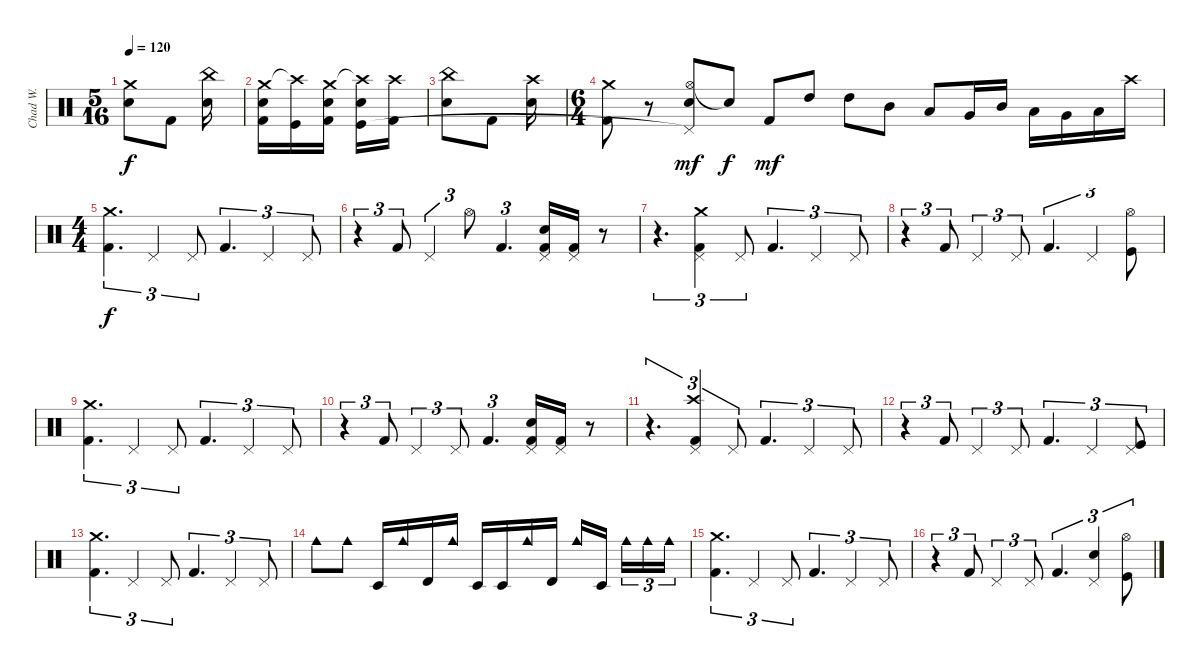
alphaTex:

\track ("Chad W." "Chad W.") {instrument percussion bank 177}
\staff {score}
\articulation defaults
\ts (5 16)
\tempo 120
\clef neutral
\ks c
("Crash medium (hit)" "Electric Snare (hit)").8{dy f} "Kick (hit) 2".8 ("China (hit)" "Electric Snare (hit)").16 |
("Crash medium (hit)" "Electric Snare (hit)" "Kick (hit) 2").16 ("Crash high (hit)"{t} "Kick (hit)").16 ("Crash medium (hit)" "Electric Snare (hit)" "Kick (hit) 2").16 ("Crash high (hit)"{t} "Electric Snare (hit)" "Kick (hit)").16 ("Crash high (hit)" "Kick (hit) 2").16 |
("China (hit)" "Electric Snare (hit)").8 "Kick (hit) 2".8 ("Crash high (hit)" "Electric Snare (hit)").16 |
\ts (6 4)
("Crash medium (hit)" "Kick (hit) 2").8 r.8 ("Hi-Hat (open)" "Electric Snare (hit)" "Pedal Hi-Hat (hit)"{t}).8{dy mf} "Snare (hit)"{t}.8{dy f} "Kick (hit) 2".8{dy mf} "High Tom (hit)".8 "High Tom (hit)".8 "Mid Tom (hit)".8 "Low Tom (hit)".8 "Very Low Tom (hit)".16 "Mid Tom (hit)".16 "Low Tom (hit)".16 "Very Low Tom (hit)".16 "Low Floor Tom (hit)".16 "Crash high (hit)".16 |
\ts (4 4)
("Crash medium (hit)" "Kick (hit) 2").4{d tu (3 2) dy f} "Pedal Hi-Hat (hit)".4{tu (3 2)} "Pedal Hi-Hat (hit)".8{tu (3 2)} "Kick (hit) 2".4{d tu (3 2)} "Pedal Hi-Hat (hit)".4{tu (3 2)} "Pedal Hi-Hat (hit)".8{tu (3 2)} |
r.4{tu (3 2)} "Kick (hit) 2".8{tu (3 2)} "Pedal Hi-Hat (hit)".4{tu (3 2)} "Hi-Hat (open)".8{tu (3 2)} "Kick (hit) 2".4{d tu (3 2)} ("Pedal Hi-Hat (hit)" "Electric Snare (hit)" "Kick (hit) 2").16 ("Pedal Hi-Hat (hit)" "Kick (hit) 2").16 r.8 |
r.4{d tu (3 2)} ("Crash medium (hit)" "Pedal Hi-Hat (hit)" "Kick (hit) 2").4{tu (3 2)} "Pedal Hi-Hat (hit)".8{tu (3 2)} "Kick (hit) 2".4{d tu (3 2)} "Pedal Hi-Hat (hit)".4{tu (3 2)} "Pedal Hi-Hat (hit)".8{tu (3 2)} |
r.4{tu (3 2)} "Kick (hit) 2".8{tu (3 2)} "Pedal Hi-Hat (hit)".4{tu (3 2)} "Pedal Hi-Hat (hit)".8{tu (3 2)} "Kick (hit) 2".4{d tu (3 2)} "Pedal Hi-Hat (hit)".4{tu (3 2)} ("Hi-Hat (open)" "Kick (hit)").8{tu (3 2)} |
("Crash medium (hit)" "Kick (hit) 2").4{d tu (3 2)} "Pedal Hi-Hat (hit)".4{tu (3 2)} "Pedal Hi-Hat (hit)".8{tu (3 2)} "Kick (hit) 2".4{d tu (3 2)} "Pedal Hi-Hat (hit)".4{tu (3 2)} "Pedal Hi-Hat (hit)".8{tu (3 2)} |
r.4{tu (3 2)} "Kick (hit) 2".8{tu (3 2)} "Pedal Hi-Hat (hit)".4{tu (3 2)} "Pedal Hi-Hat (hit)".8{tu (3 2)} "Kick (hit) 2".4{d tu (3 2)} ("Pedal Hi-Hat (hit)" "Electric Snare (hit)" "Kick (hit) 2").16 ("Pedal Hi-Hat (hit)" "Kick (hit) 2").16 r.8 |
r.4{d tu (3 2)} ("Crash high (hit)" "Pedal Hi-Hat (hit)" "Kick (hit) 2").4{tu (3 2)} "Pedal Hi-Hat (hit)".8{tu (3 2)} "Kick (hit) 2".4{d tu (3 2)} "Pedal Hi-Hat (hit)".4{tu (3 2)} "Pedal Hi-Hat (hit)".8{tu (3 2)} |
r.4{tu (3 2)} "Kick (hit) 2".8{tu (3 2)} "Pedal Hi-Hat (hit)".4{tu (3 2)} "Pedal Hi-Hat (hit)".8{tu (3 2)} "Kick (hit) 2".4{d tu (3 2)} "Pedal Hi-Hat (hit)".4{tu (3 2)} ("Pedal Hi-Hat (hit)" "Kick (hit)").8{tu (3 2)} |
("Crash medium (hit)" "Kick (hit) 2").4{d tu (3 2)} "Pedal Hi-Hat (hit)".4{tu (3 2)} "Pedal Hi-Hat (hit)".8{tu (3 2)} "Kick (hit) 2".4{d tu (3 2)} "Pedal Hi-Hat (hit)".4{tu (3 2)} "Pedal Hi-Hat (hit)".8{tu (3 2)} |
"Cowbell medium (hit)".8 "Cowbell medium (hit)".8 "Timbale low (hit)".16 "Cowbell medium (hit)".16 "Timbale high (hit)".16 "Cowbell medium (hit)".16 "Timbale low (hit)".16 "Timbale low (hit)".16 "Cowbell medium (hit)".16 "Timbale high (hit)".16 "Cowbell medium (hit)".16 "Timbale low (hit)".16{beam splitsecondary} "Cowbell medium (hit)".16{tu (3 2)} "Cowbell medium (hit)".16{tu (3 2)} "Cowbell medium (hit)".16{tu (3 2)} |
("Crash medium (hit)" "Kick (hit) 2").4{d tu (3 2)} "Pedal Hi-Hat (hit)".4{tu (3 2)} "Pedal Hi-Hat (hit)".8{tu (3 2)} "Kick (hit) 2".4{d tu (3 2)} "Pedal Hi-Hat (hit)".4{tu (3 2)} "Pedal Hi-Hat (hit)".8{tu (3 2)} |
r.4{tu (3 2)} "Kick (hit) 2".8{tu (3 2)} "Pedal Hi-Hat (hit)".4{tu (3 2)} "Pedal Hi-Hat (hit)".8{tu (3 2)} "Kick (hit) 2".4{d tu (3 2)} ("Pedal Hi-Hat (hit)" "Electric Snare (hit)").4{tu (3 2)} ("Hi-Hat (open)" "Kick (hit)").8{tu (3 2)}
